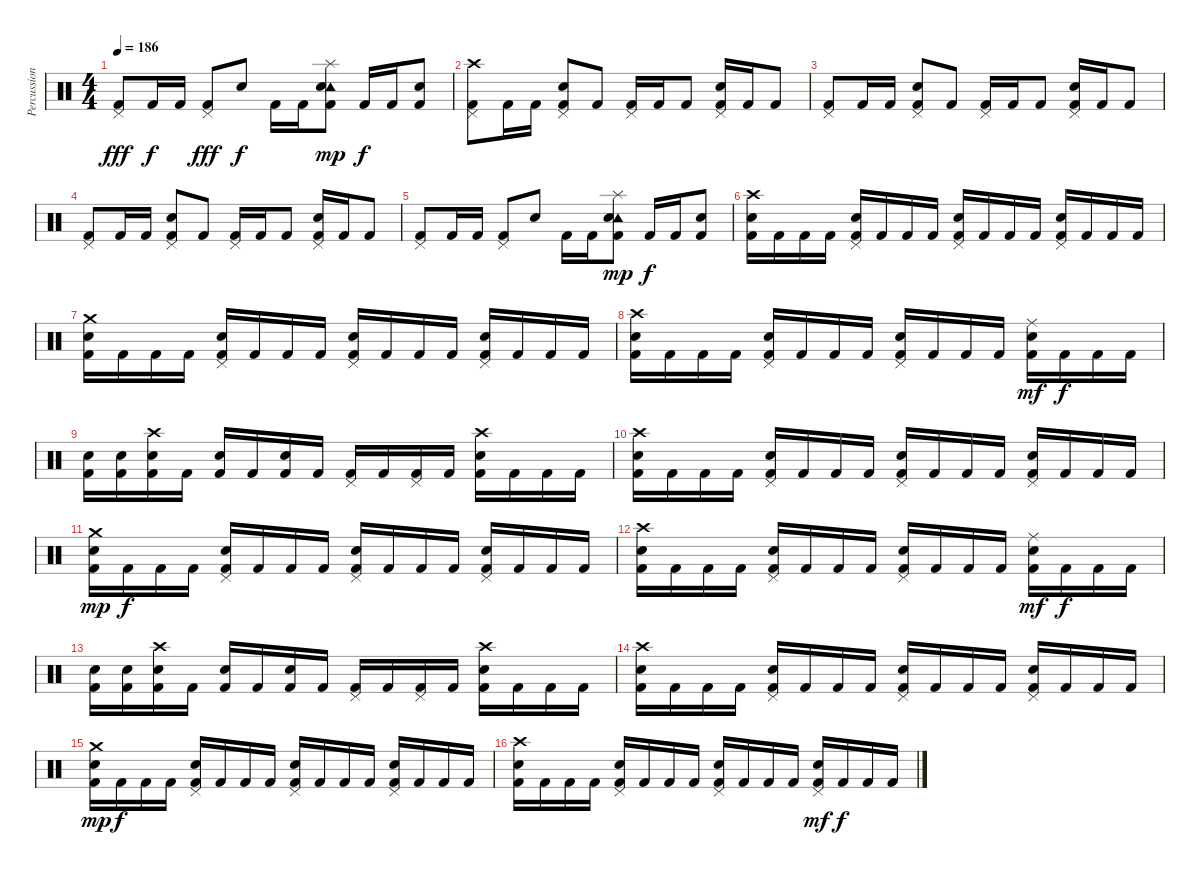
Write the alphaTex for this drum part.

\track ("Percussion" "Percussion") {instrument percussion}
\staff {score}
\articulation defaults
\ts (4 4)
\tempo 186
\clef neutral
\ks c
("Pedal Hi-Hat (hit)" "Kick (hit) 2").8{dy fff} "Kick (hit) 2".16{dy f} "Kick (hit) 2".16 ("Pedal Hi-Hat (hit)" "Kick (hit) 2").8{dy fff} "Electric Snare (hit)".8{dy f} "Kick (hit) 2".16 "Kick (hit) 2".16 ("Tambourine (hit)" "Splash (hit)" "Electric Snare (hit)" "Kick (hit) 2").8{dy mp} "Kick (hit) 2".16{dy f} "Kick (hit) 2".16 ("Electric Snare (hit)" "Kick (hit) 2").8 |
("Crash high (hit)" "Pedal Hi-Hat (hit)" "Kick (hit) 2").8 "Kick (hit) 2".16 "Kick (hit) 2".16 ("Electric Snare (hit)" "Pedal Hi-Hat (hit)" "Kick (hit) 2").8 "Kick (hit) 2".8 ("Pedal Hi-Hat (hit)" "Kick (hit) 2").16 "Kick (hit) 2".16 "Kick (hit) 2".8 ("Electric Snare (hit)" "Pedal Hi-Hat (hit)" "Kick (hit) 2").16 "Kick (hit) 2".16 "Kick (hit) 2".8 |
("Pedal Hi-Hat (hit)" "Kick (hit) 2").8 "Kick (hit) 2".16 "Kick (hit) 2".16 ("Electric Snare (hit)" "Pedal Hi-Hat (hit)" "Kick (hit) 2").8 "Kick (hit) 2".8 ("Pedal Hi-Hat (hit)" "Kick (hit) 2").16 "Kick (hit) 2".16 "Kick (hit) 2".8 ("Electric Snare (hit)" "Pedal Hi-Hat (hit)" "Kick (hit) 2").16 "Kick (hit) 2".16 "Kick (hit) 2".8 |
("Pedal Hi-Hat (hit)" "Kick (hit) 2").8 "Kick (hit) 2".16 "Kick (hit) 2".16 ("Electric Snare (hit)" "Pedal Hi-Hat (hit)" "Kick (hit) 2").8 "Kick (hit) 2".8 ("Pedal Hi-Hat (hit)" "Kick (hit) 2").16 "Kick (hit) 2".16 "Kick (hit) 2".8 ("Electric Snare (hit)" "Pedal Hi-Hat (hit)" "Kick (hit) 2").16 "Kick (hit) 2".16 "Kick (hit) 2".8 |
("Pedal Hi-Hat (hit)" "Kick (hit) 2").8 "Kick (hit) 2".16 "Kick (hit) 2".16 ("Pedal Hi-Hat (hit)" "Kick (hit) 2").8 "Electric Snare (hit)".8 "Kick (hit) 2".16 "Kick (hit) 2".16 ("Tambourine (hit)" "Splash (hit)" "Electric Snare (hit)" "Kick (hit) 2").8{dy mp} "Kick (hit) 2".16{dy f} "Kick (hit) 2".16 ("Electric Snare (hit)" "Kick (hit) 2").8 |
("Crash high (hit)" "Electric Snare (hit)" "Kick (hit) 2").16 "Kick (hit) 2".16 "Kick (hit) 2".16 "Kick (hit) 2".16 ("Pedal Hi-Hat (hit)" "Electric Snare (hit)" "Kick (hit) 2").16 "Kick (hit) 2".16 "Kick (hit) 2".16 "Kick (hit) 2".16 ("Pedal Hi-Hat (hit)" "Electric Snare (hit)" "Kick (hit) 2").16 "Kick (hit) 2".16 "Kick (hit) 2".16 "Kick (hit) 2".16 ("Pedal Hi-Hat (hit)" "Electric Snare (hit)" "Kick (hit) 2").16 "Kick (hit) 2".16 "Kick (hit) 2".16 "Kick (hit) 2".16 |
("Crash medium (hit)" "Electric Snare (hit)" "Kick (hit) 2").16 "Kick (hit) 2".16 "Kick (hit) 2".16 "Kick (hit) 2".16 ("Pedal Hi-Hat (hit)" "Electric Snare (hit)" "Kick (hit) 2").16 "Kick (hit) 2".16 "Kick (hit) 2".16 "Kick (hit) 2".16 ("Pedal Hi-Hat (hit)" "Electric Snare (hit)" "Kick (hit) 2").16 "Kick (hit) 2".16 "Kick (hit) 2".16 "Kick (hit) 2".16 ("Pedal Hi-Hat (hit)" "Electric Snare (hit)" "Kick (hit) 2").16 "Kick (hit) 2".16 "Kick (hit) 2".16 "Kick (hit) 2".16 |
("Crash high (hit)" "Electric Snare (hit)" "Kick (hit) 2").16 "Kick (hit) 2".16 "Kick (hit) 2".16 "Kick (hit) 2".16 ("Pedal Hi-Hat (hit)" "Electric Snare (hit)" "Kick (hit) 2").16 "Kick (hit) 2".16 "Kick (hit) 2".16 "Kick (hit) 2".16 ("Pedal Hi-Hat (hit)" "Electric Snare (hit)" "Kick (hit) 2").16 "Kick (hit) 2".16 "Kick (hit) 2".16 "Kick (hit) 2".16 ("Ride (middle)" "Electric Snare (hit)" "Kick (hit) 2").16{dy mf} "Kick (hit) 2".16{dy f} "Kick (hit) 2".16 "Kick (hit) 2".16 |
("Electric Snare (hit)" "Kick (hit) 2").16 ("Electric Snare (hit)" "Kick (hit) 2").16 ("Crash high (hit)" "Electric Snare (hit)" "Kick (hit) 2").16 "Kick (hit) 2".16 ("Electric Snare (hit)" "Kick (hit) 2").16 "Kick (hit) 2".16 ("Electric Snare (hit)" "Kick (hit) 2").16 "Kick (hit) 2".16 ("Pedal Hi-Hat (hit)" "Kick (hit) 2").16 "Kick (hit) 2".16 ("Pedal Hi-Hat (hit)" "Kick (hit) 2").16 "Kick (hit) 2".16 ("Crash high (hit)" "Electric Snare (hit)" "Kick (hit) 2").16 "Kick (hit) 2".16 "Kick (hit) 2".16 "Kick (hit) 2".16 |
("Crash high (hit)" "Electric Snare (hit)" "Kick (hit) 2").16 "Kick (hit) 2".16 "Kick (hit) 2".16 "Kick (hit) 2".16 ("Pedal Hi-Hat (hit)" "Electric Snare (hit)" "Kick (hit) 2").16 "Kick (hit) 2".16 "Kick (hit) 2".16 "Kick (hit) 2".16 ("Pedal Hi-Hat (hit)" "Electric Snare (hit)" "Kick (hit) 2").16 "Kick (hit) 2".16 "Kick (hit) 2".16 "Kick (hit) 2".16 ("Pedal Hi-Hat (hit)" "Electric Snare (hit)" "Kick (hit) 2").16 "Kick (hit) 2".16 "Kick (hit) 2".16 "Kick (hit) 2".16 |
("Crash medium (hit)" "Electric Snare (hit)" "Kick (hit) 2").16{dy mp} "Kick (hit) 2".16{dy f} "Kick (hit) 2".16 "Kick (hit) 2".16 ("Pedal Hi-Hat (hit)" "Electric Snare (hit)" "Kick (hit) 2").16 "Kick (hit) 2".16 "Kick (hit) 2".16 "Kick (hit) 2".16 ("Pedal Hi-Hat (hit)" "Electric Snare (hit)" "Kick (hit) 2").16 "Kick (hit) 2".16 "Kick (hit) 2".16 "Kick (hit) 2".16 ("Pedal Hi-Hat (hit)" "Electric Snare (hit)" "Kick (hit) 2").16 "Kick (hit) 2".16 "Kick (hit) 2".16 "Kick (hit) 2".16 |
("Crash high (hit)" "Electric Snare (hit)" "Kick (hit) 2").16 "Kick (hit) 2".16 "Kick (hit) 2".16 "Kick (hit) 2".16 ("Pedal Hi-Hat (hit)" "Electric Snare (hit)" "Kick (hit) 2").16 "Kick (hit) 2".16 "Kick (hit) 2".16 "Kick (hit) 2".16 ("Pedal Hi-Hat (hit)" "Electric Snare (hit)" "Kick (hit) 2").16 "Kick (hit) 2".16 "Kick (hit) 2".16 "Kick (hit) 2".16 ("Ride (middle)" "Electric Snare (hit)" "Kick (hit) 2").16{dy mf} "Kick (hit) 2".16{dy f} "Kick (hit) 2".16 "Kick (hit) 2".16 |
("Electric Snare (hit)" "Kick (hit) 2").16 ("Electric Snare (hit)" "Kick (hit) 2").16 ("Crash high (hit)" "Electric Snare (hit)" "Kick (hit) 2").16 "Kick (hit) 2".16 ("Electric Snare (hit)" "Kick (hit) 2").16 "Kick (hit) 2".16 ("Electric Snare (hit)" "Kick (hit) 2").16 "Kick (hit) 2".16 ("Pedal Hi-Hat (hit)" "Kick (hit) 2").16 "Kick (hit) 2".16 ("Pedal Hi-Hat (hit)" "Kick (hit) 2").16 "Kick (hit) 2".16 ("Crash high (hit)" "Electric Snare (hit)" "Kick (hit) 2").16 "Kick (hit) 2".16 "Kick (hit) 2".16 "Kick (hit) 2".16 |
("Crash high (hit)" "Electric Snare (hit)" "Kick (hit) 2").16 "Kick (hit) 2".16 "Kick (hit) 2".16 "Kick (hit) 2".16 ("Pedal Hi-Hat (hit)" "Electric Snare (hit)" "Kick (hit) 2").16 "Kick (hit) 2".16 "Kick (hit) 2".16 "Kick (hit) 2".16 ("Pedal Hi-Hat (hit)" "Electric Snare (hit)" "Kick (hit) 2").16 "Kick (hit) 2".16 "Kick (hit) 2".16 "Kick (hit) 2".16 ("Pedal Hi-Hat (hit)" "Electric Snare (hit)" "Kick (hit) 2").16 "Kick (hit) 2".16 "Kick (hit) 2".16 "Kick (hit) 2".16 |
("Crash medium (hit)" "Electric Snare (hit)" "Kick (hit) 2").16{dy mp} "Kick (hit) 2".16{dy f} "Kick (hit) 2".16 "Kick (hit) 2".16 ("Pedal Hi-Hat (hit)" "Electric Snare (hit)" "Kick (hit) 2").16 "Kick (hit) 2".16 "Kick (hit) 2".16 "Kick (hit) 2".16 ("Pedal Hi-Hat (hit)" "Electric Snare (hit)" "Kick (hit) 2").16 "Kick (hit) 2".16 "Kick (hit) 2".16 "Kick (hit) 2".16 ("Pedal Hi-Hat (hit)" "Electric Snare (hit)" "Kick (hit) 2").16 "Kick (hit) 2".16 "Kick (hit) 2".16 "Kick (hit) 2".16 |
("Crash high (hit)" "Electric Snare (hit)" "Kick (hit) 2").16 "Kick (hit) 2".16 "Kick (hit) 2".16 "Kick (hit) 2".16 ("Pedal Hi-Hat (hit)" "Electric Snare (hit)" "Kick (hit) 2").16 "Kick (hit) 2".16 "Kick (hit) 2".16 "Kick (hit) 2".16 ("Pedal Hi-Hat (hit)" "Electric Snare (hit)" "Kick (hit) 2").16 "Kick (hit) 2".16 "Kick (hit) 2".16 "Kick (hit) 2".16 ("Pedal Hi-Hat (hit)" "Electric Snare (hit)" "Kick (hit) 2").16{dy mf} "Kick (hit) 2".16{dy f} "Kick (hit) 2".16 "Kick (hit) 2".16
